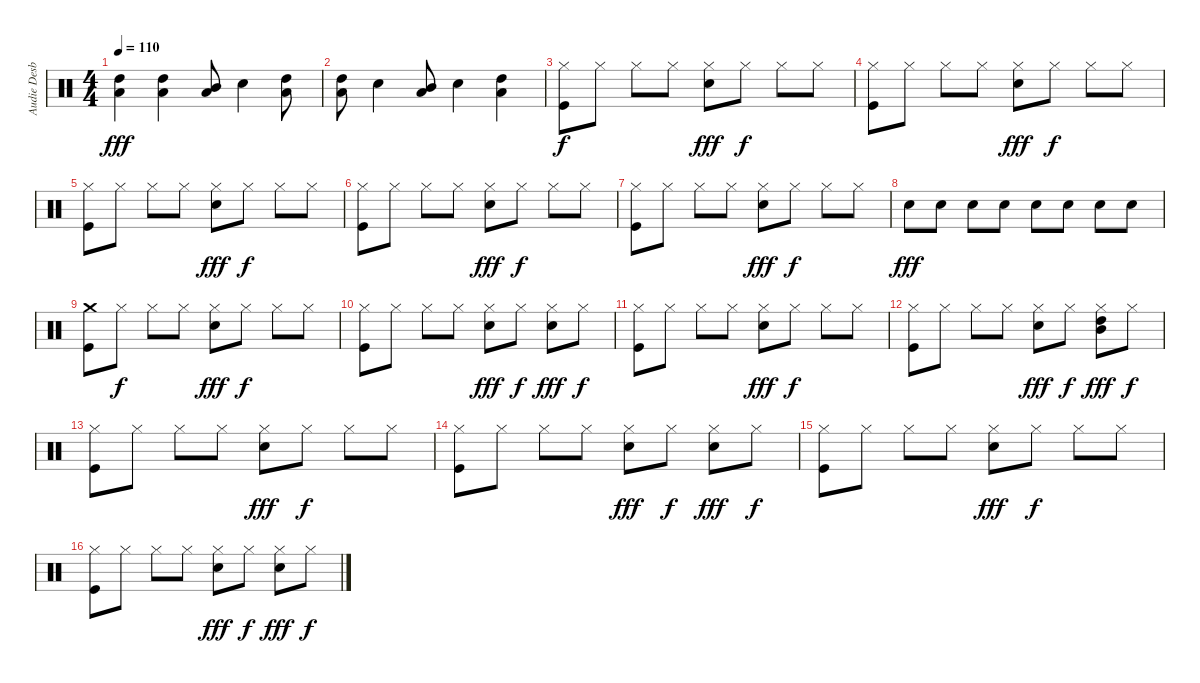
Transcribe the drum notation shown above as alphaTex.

\track ("Audie Desbrow" "Audie Desb") {instrument percussion}
\staff {score}
\articulation defaults
\ts (4 4)
\tempo 110
\clef neutral
\ks c
("High Tom (hit)" "Low Tom (hit)").4{dy fff} ("High Tom (hit)" "Low Tom (hit)").4 ("Mid Tom (hit)" "Low Tom (hit)").8 "Snare (hit) 2".4 ("High Tom (hit)" "Low Tom (hit)").8 |
("High Tom (hit)" "Low Tom (hit)").8 "Snare (hit) 2".4 ("Mid Tom (hit)" "Low Tom (hit)").8 "Snare (hit) 2".4 ("High Tom (hit)" "Low Tom (hit)").4 |
("Hi-Hat (closed)" "Kick (hit)").8{dy f} "Hi-Hat (closed)".8 "Hi-Hat (closed)".8 "Hi-Hat (closed)".8 ("Hi-Hat (closed)" "Snare (hit) 2").8{dy fff} "Hi-Hat (closed)".8{dy f} "Hi-Hat (closed)".8 "Hi-Hat (closed)".8 |
("Hi-Hat (closed)" "Kick (hit)").8 "Hi-Hat (closed)".8 "Hi-Hat (closed)".8 "Hi-Hat (closed)".8 ("Hi-Hat (closed)" "Snare (hit) 2").8{dy fff} "Hi-Hat (closed)".8{dy f} "Hi-Hat (closed)".8 "Hi-Hat (closed)".8 |
("Hi-Hat (closed)" "Kick (hit)").8 "Hi-Hat (closed)".8 "Hi-Hat (closed)".8 "Hi-Hat (closed)".8 ("Hi-Hat (closed)" "Snare (hit) 2").8{dy fff} "Hi-Hat (closed)".8{dy f} "Hi-Hat (closed)".8 "Hi-Hat (closed)".8 |
("Hi-Hat (closed)" "Kick (hit)").8 "Hi-Hat (closed)".8 "Hi-Hat (closed)".8 "Hi-Hat (closed)".8 ("Hi-Hat (closed)" "Snare (hit) 2").8{dy fff} "Hi-Hat (closed)".8{dy f} "Hi-Hat (closed)".8 "Hi-Hat (closed)".8 |
("Hi-Hat (closed)" "Kick (hit)").8 "Hi-Hat (closed)".8 "Hi-Hat (closed)".8 "Hi-Hat (closed)".8 ("Hi-Hat (closed)" "Snare (hit) 2").8{dy fff} "Hi-Hat (closed)".8{dy f} "Hi-Hat (closed)".8 "Hi-Hat (closed)".8 |
"Snare (hit) 2".8{dy fff} "Snare (hit) 2".8 "Snare (hit) 2".8 "Snare (hit) 2".8 "Snare (hit) 2".8 "Snare (hit) 2".8 "Snare (hit) 2".8 "Snare (hit) 2".8 |
("Crash medium (hit)" "Kick (hit)").8 "Hi-Hat (closed)".8{dy f} "Hi-Hat (closed)".8 "Hi-Hat (closed)".8 ("Hi-Hat (closed)" "Snare (hit) 2").8{dy fff} "Hi-Hat (closed)".8{dy f} "Hi-Hat (closed)".8 "Hi-Hat (closed)".8 |
("Hi-Hat (closed)" "Kick (hit)").8 "Hi-Hat (closed)".8 "Hi-Hat (closed)".8 "Hi-Hat (closed)".8 ("Hi-Hat (closed)" "Snare (hit) 2").8{dy fff} "Hi-Hat (closed)".8{dy f} ("Hi-Hat (closed)" "Snare (hit) 2").8{dy fff} "Hi-Hat (closed)".8{dy f} |
("Hi-Hat (closed)" "Kick (hit)").8 "Hi-Hat (closed)".8 "Hi-Hat (closed)".8 "Hi-Hat (closed)".8 ("Hi-Hat (closed)" "Snare (hit) 2").8{dy fff} "Hi-Hat (closed)".8{dy f} "Hi-Hat (closed)".8 "Hi-Hat (closed)".8 |
("Hi-Hat (closed)" "Kick (hit)").8 "Hi-Hat (closed)".8 "Hi-Hat (closed)".8 "Hi-Hat (closed)".8 ("Hi-Hat (closed)" "Snare (hit) 2").8{dy fff} "Hi-Hat (closed)".8{dy f} ("Hi-Hat (closed)" "High Tom (hit)" "Mid Tom (hit)").8{dy fff} "Hi-Hat (closed)".8{dy f} |
("Hi-Hat (closed)" "Kick (hit)").8 "Hi-Hat (closed)".8 "Hi-Hat (closed)".8 "Hi-Hat (closed)".8 ("Hi-Hat (closed)" "Snare (hit) 2").8{dy fff} "Hi-Hat (closed)".8{dy f} "Hi-Hat (closed)".8 "Hi-Hat (closed)".8 |
("Hi-Hat (closed)" "Kick (hit)").8 "Hi-Hat (closed)".8 "Hi-Hat (closed)".8 "Hi-Hat (closed)".8 ("Hi-Hat (closed)" "Snare (hit) 2").8{dy fff} "Hi-Hat (closed)".8{dy f} ("Hi-Hat (closed)" "Snare (hit) 2").8{dy fff} "Hi-Hat (closed)".8{dy f} |
("Hi-Hat (closed)" "Kick (hit)").8 "Hi-Hat (closed)".8 "Hi-Hat (closed)".8 "Hi-Hat (closed)".8 ("Hi-Hat (closed)" "Snare (hit) 2").8{dy fff} "Hi-Hat (closed)".8{dy f} "Hi-Hat (closed)".8 "Hi-Hat (closed)".8 |
("Hi-Hat (closed)" "Kick (hit)").8 "Hi-Hat (closed)".8 "Hi-Hat (closed)".8 "Hi-Hat (closed)".8 ("Hi-Hat (closed)" "Snare (hit) 2").8{dy fff} "Hi-Hat (closed)".8{dy f} ("Hi-Hat (closed)" "Snare (hit) 2").8{dy fff} "Hi-Hat (closed)".8{dy f}
